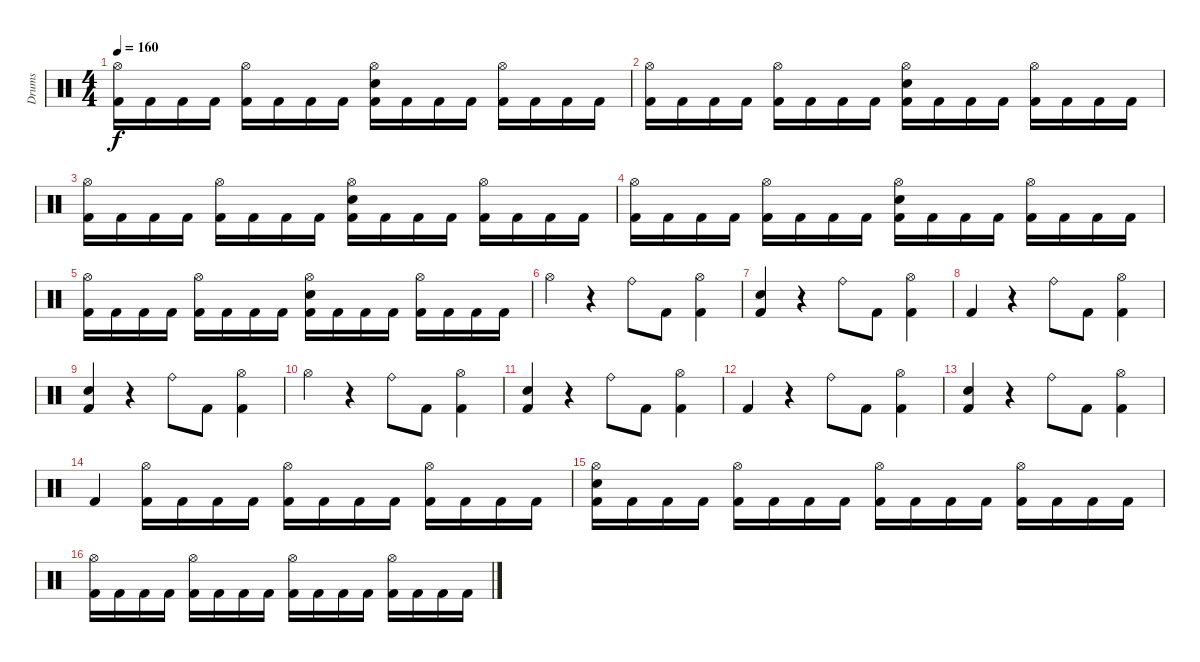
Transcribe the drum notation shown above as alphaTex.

\track ("Drums" "Drums") {instrument percussion}
\staff {score}
\articulation defaults
\ts (4 4)
\tempo 160
\clef neutral
\ks c
("Hi-Hat (open)" "Kick (hit) 2").16{dy f} "Kick (hit) 2".16 "Kick (hit) 2".16 "Kick (hit) 2".16 ("Hi-Hat (open)" "Kick (hit) 2").16 "Kick (hit) 2".16 "Kick (hit) 2".16 "Kick (hit) 2".16 ("Hi-Hat (open)" "Snare (hit) 2" "Kick (hit) 2").16 "Kick (hit) 2".16 "Kick (hit) 2".16 "Kick (hit) 2".16 ("Hi-Hat (open)" "Kick (hit) 2").16 "Kick (hit) 2".16 "Kick (hit) 2".16 "Kick (hit) 2".16 |
("Hi-Hat (open)" "Kick (hit) 2").16 "Kick (hit) 2".16 "Kick (hit) 2".16 "Kick (hit) 2".16 ("Hi-Hat (open)" "Kick (hit) 2").16 "Kick (hit) 2".16 "Kick (hit) 2".16 "Kick (hit) 2".16 ("Hi-Hat (open)" "Snare (hit) 2" "Kick (hit) 2").16 "Kick (hit) 2".16 "Kick (hit) 2".16 "Kick (hit) 2".16 ("Hi-Hat (open)" "Kick (hit) 2").16 "Kick (hit) 2".16 "Kick (hit) 2".16 "Kick (hit) 2".16 |
("Hi-Hat (open)" "Kick (hit) 2").16 "Kick (hit) 2".16 "Kick (hit) 2".16 "Kick (hit) 2".16 ("Hi-Hat (open)" "Kick (hit) 2").16 "Kick (hit) 2".16 "Kick (hit) 2".16 "Kick (hit) 2".16 ("Hi-Hat (open)" "Snare (hit) 2" "Kick (hit) 2").16 "Kick (hit) 2".16 "Kick (hit) 2".16 "Kick (hit) 2".16 ("Hi-Hat (open)" "Kick (hit) 2").16 "Kick (hit) 2".16 "Kick (hit) 2".16 "Kick (hit) 2".16 |
("Hi-Hat (open)" "Kick (hit) 2").16 "Kick (hit) 2".16 "Kick (hit) 2".16 "Kick (hit) 2".16 ("Hi-Hat (open)" "Kick (hit) 2").16 "Kick (hit) 2".16 "Kick (hit) 2".16 "Kick (hit) 2".16 ("Hi-Hat (open)" "Snare (hit) 2" "Kick (hit) 2").16 "Kick (hit) 2".16 "Kick (hit) 2".16 "Kick (hit) 2".16 ("Hi-Hat (open)" "Kick (hit) 2").16 "Kick (hit) 2".16 "Kick (hit) 2".16 "Kick (hit) 2".16 |
("Hi-Hat (open)" "Kick (hit) 2").16 "Kick (hit) 2".16 "Kick (hit) 2".16 "Kick (hit) 2".16 ("Hi-Hat (open)" "Kick (hit) 2").16 "Kick (hit) 2".16 "Kick (hit) 2".16 "Kick (hit) 2".16 ("Hi-Hat (open)" "Snare (hit) 2" "Kick (hit) 2").16 "Kick (hit) 2".16 "Kick (hit) 2".16 "Kick (hit) 2".16 ("Hi-Hat (open)" "Kick (hit) 2").16 "Kick (hit) 2".16 "Kick (hit) 2".16 "Kick (hit) 2".16 |
"Hi-Hat (open)".4 r.4 "Ride (bell)".8 "Kick (hit) 2".8 ("Hi-Hat (open)" "Kick (hit) 2").4 |
("Snare (hit) 2" "Kick (hit) 2").4 r.4 "Ride (bell)".8 "Kick (hit) 2".8 ("Hi-Hat (open)" "Kick (hit) 2").4 |
"Kick (hit) 2".4 r.4 "Ride (bell)".8 "Kick (hit) 2".8 ("Hi-Hat (open)" "Kick (hit) 2").4 |
("Snare (hit) 2" "Kick (hit) 2").4 r.4 "Ride (bell)".8 "Kick (hit) 2".8 ("Hi-Hat (open)" "Kick (hit) 2").4 |
"Hi-Hat (open)".4 r.4 "Ride (bell)".8 "Kick (hit) 2".8 ("Hi-Hat (open)" "Kick (hit) 2").4 |
("Snare (hit) 2" "Kick (hit) 2").4 r.4 "Ride (bell)".8 "Kick (hit) 2".8 ("Hi-Hat (open)" "Kick (hit) 2").4 |
"Kick (hit) 2".4 r.4 "Ride (bell)".8 "Kick (hit) 2".8 ("Hi-Hat (open)" "Kick (hit) 2").4 |
("Snare (hit) 2" "Kick (hit) 2").4 r.4 "Ride (bell)".8 "Kick (hit) 2".8 ("Hi-Hat (open)" "Kick (hit) 2").4 |
"Kick (hit) 2".4 ("Hi-Hat (open)" "Kick (hit) 2").16 "Kick (hit) 2".16 "Kick (hit) 2".16 "Kick (hit) 2".16 ("Hi-Hat (open)" "Kick (hit) 2").16 "Kick (hit) 2".16 "Kick (hit) 2".16 "Kick (hit) 2".16 ("Hi-Hat (open)" "Kick (hit) 2").16 "Kick (hit) 2".16 "Kick (hit) 2".16 "Kick (hit) 2".16 |
("Hi-Hat (open)" "Snare (hit) 2" "Kick (hit) 2").16 "Kick (hit) 2".16 "Kick (hit) 2".16 "Kick (hit) 2".16 ("Hi-Hat (open)" "Kick (hit) 2").16 "Kick (hit) 2".16 "Kick (hit) 2".16 "Kick (hit) 2".16 ("Hi-Hat (open)" "Kick (hit) 2").16 "Kick (hit) 2".16 "Kick (hit) 2".16 "Kick (hit) 2".16 ("Hi-Hat (open)" "Kick (hit) 2").16 "Kick (hit) 2".16 "Kick (hit) 2".16 "Kick (hit) 2".16 |
("Hi-Hat (open)" "Kick (hit) 2").16 "Kick (hit) 2".16 "Kick (hit) 2".16 "Kick (hit) 2".16 ("Hi-Hat (open)" "Kick (hit) 2").16 "Kick (hit) 2".16 "Kick (hit) 2".16 "Kick (hit) 2".16 ("Hi-Hat (open)" "Kick (hit) 2").16 "Kick (hit) 2".16 "Kick (hit) 2".16 "Kick (hit) 2".16 ("Hi-Hat (open)" "Kick (hit) 2").16 "Kick (hit) 2".16 "Kick (hit) 2".16 "Kick (hit) 2".16
